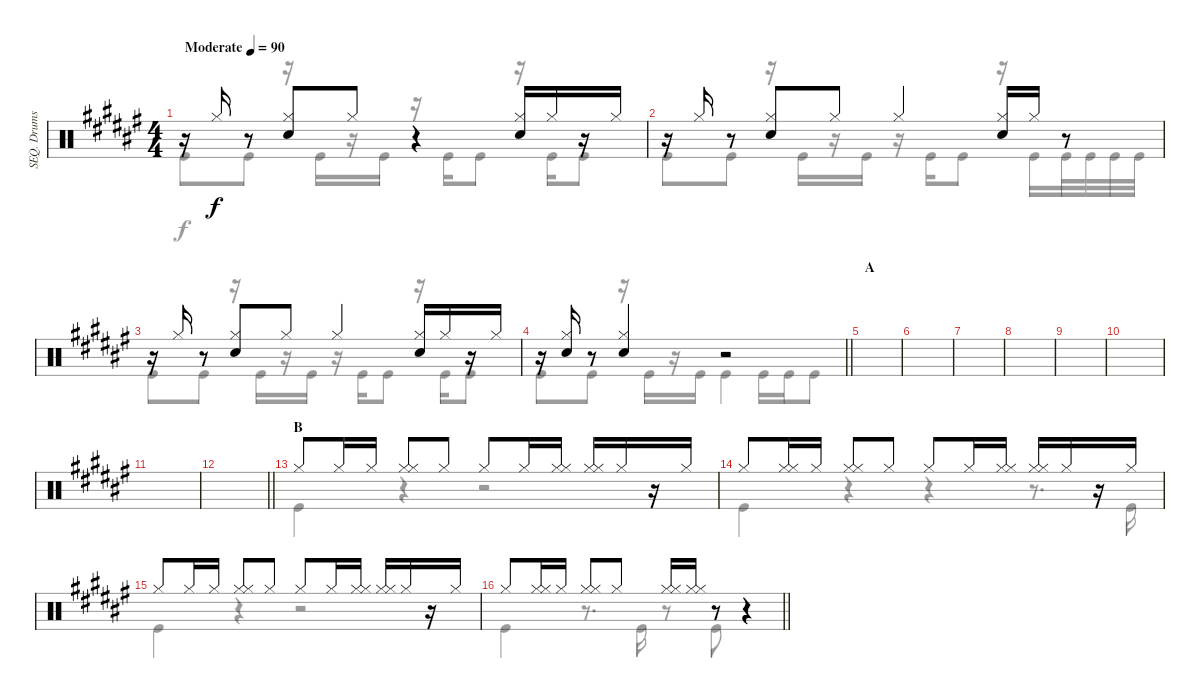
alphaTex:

\track ("SEQ. Drums" "SEQ. Drums") {instrument percussion}
\staff {score}
\articulation defaults
\voice
\ts (4 4)
\tempo (90 "Moderate")
\clef neutral
\ks f#
r.16{dy f} "Hi-Hat (closed)".16 r.8 ("Hi-Hat (closed)" "Electric Snare (hit)").8 "Hi-Hat (closed)".8 r.4 ("Hi-Hat (closed)" "Electric Snare (hit)").16 "Hi-Hat (closed)".16 r.16 "Hi-Hat (closed)".16 |
r.16 "Hi-Hat (closed)".16 r.8 ("Hi-Hat (closed)" "Electric Snare (hit)").8 "Hi-Hat (closed)".8 "Hi-Hat (closed)".4 ("Hi-Hat (closed)" "Electric Snare (hit)").16 "Hi-Hat (closed)".16 r.8 |
r.16 "Hi-Hat (closed)".16 r.8 ("Hi-Hat (closed)" "Electric Snare (hit)").8 "Hi-Hat (closed)".8 "Hi-Hat (closed)".4 ("Hi-Hat (closed)" "Electric Snare (hit)").16 "Hi-Hat (closed)".16 r.16 "Hi-Hat (closed)".16 |
\barLineRight lightlight
r.16 ("Hi-Hat (closed)" "Electric Snare (hit)").16 r.8 ("Hi-Hat (closed)" "Snare (hit) 2").4 r.2 |
\section ("" "A")
|
|
|
|
|
|
|
\barLineRight lightlight
|
\section ("" "B")
"Hi-Hat (closed)".8 "Hi-Hat (closed)".16 "Hi-Hat (closed)".16 ("Hi-Hat (closed)" "Hi-Hat (closed)").8 "Hi-Hat (closed)".8 "Hi-Hat (closed)".8 "Hi-Hat (closed)".16 ("Hi-Hat (closed)" "Hi-Hat (closed)").16 ("Hi-Hat (closed)" "Hi-Hat (closed)").16 "Hi-Hat (closed)".16 r.16 "Hi-Hat (closed)".16 |
"Hi-Hat (closed)".8 ("Hi-Hat (closed)" "Hi-Hat (closed)").16 "Hi-Hat (closed)".16 ("Hi-Hat (closed)" "Hi-Hat (closed)").8 "Hi-Hat (closed)".8 "Hi-Hat (closed)".8 "Hi-Hat (closed)".16 ("Hi-Hat (closed)" "Hi-Hat (closed)").16 ("Hi-Hat (closed)" "Hi-Hat (closed)").16 "Hi-Hat (closed)".16 r.16 "Hi-Hat (closed)".16 |
"Hi-Hat (closed)".8 "Hi-Hat (closed)".16 "Hi-Hat (closed)".16 ("Hi-Hat (closed)" "Hi-Hat (closed)").8 "Hi-Hat (closed)".8 "Hi-Hat (closed)".8 "Hi-Hat (closed)".16 ("Hi-Hat (closed)" "Hi-Hat (closed)").16 ("Hi-Hat (closed)" "Hi-Hat (closed)").16 "Hi-Hat (closed)".16 r.16 "Hi-Hat (closed)".16 |
\barLineRight lightlight "Hi-Hat (closed)".8
("Hi-Hat (closed)" "Hi-Hat (closed)").16 "Hi-Hat (closed)".16 ("Hi-Hat (closed)" "Hi-Hat (closed)").8 "Hi-Hat (closed)".8 ("Hi-Hat (closed)" "Hi-Hat (closed)").16 ("Hi-Hat (closed)" "Hi-Hat (closed)").16 r.8 r.4
\voice
\clef neutral
\ottava regular
\simile none
\ks f# "Kick (hit)".8{dy f} "Kick (hit)".8
r.16 "Kick (hit)".16 r.16 "Kick (hit)".16 r.16 "Kick (hit)".16 "Kick (hit)".8 r.16 "Kick (hit)".16 "Kick (hit)".8 |
"Kick (hit)".8 "Kick (hit)".8 r.16 "Kick (hit)".16 r.16 "Kick (hit)".16 r.16 "Kick (hit)".16 "Kick (hit)".8 r.16 "Kick (hit)".16 "Kick (hit)".32 "Kick (hit)".32 "Kick (hit)".32 "Kick (hit)".32 |
"Kick (hit)".8 "Kick (hit)".8 r.16 "Kick (hit)".16 r.16 "Kick (hit)".16 r.16 "Kick (hit)".16 "Kick (hit)".8 r.16 "Kick (hit)".16 "Kick (hit)".8 |
\barLineRight lightlight "Kick (hit)".8 "Kick (hit)".8
r.16 "Kick (hit)".16 r.16 "Kick (hit)".16 "Kick (hit)".4 "Kick (hit)".16 "Kick (hit)".16 "Kick (hit)".8 |
|
|
|
|
|
|
|
\barLineRight lightlight
|
"Kick (hit)".4 r.4 r.2 |
"Kick (hit)".4 r.4 r.4 r.8{d} "Kick (hit)".16 |
"Kick (hit)".4 r.4 r.2 |
\barLineRight lightlight "Kick (hit)".4
r.8{d} "Kick (hit)".16 r.8 "Kick (hit)".8 r.4
